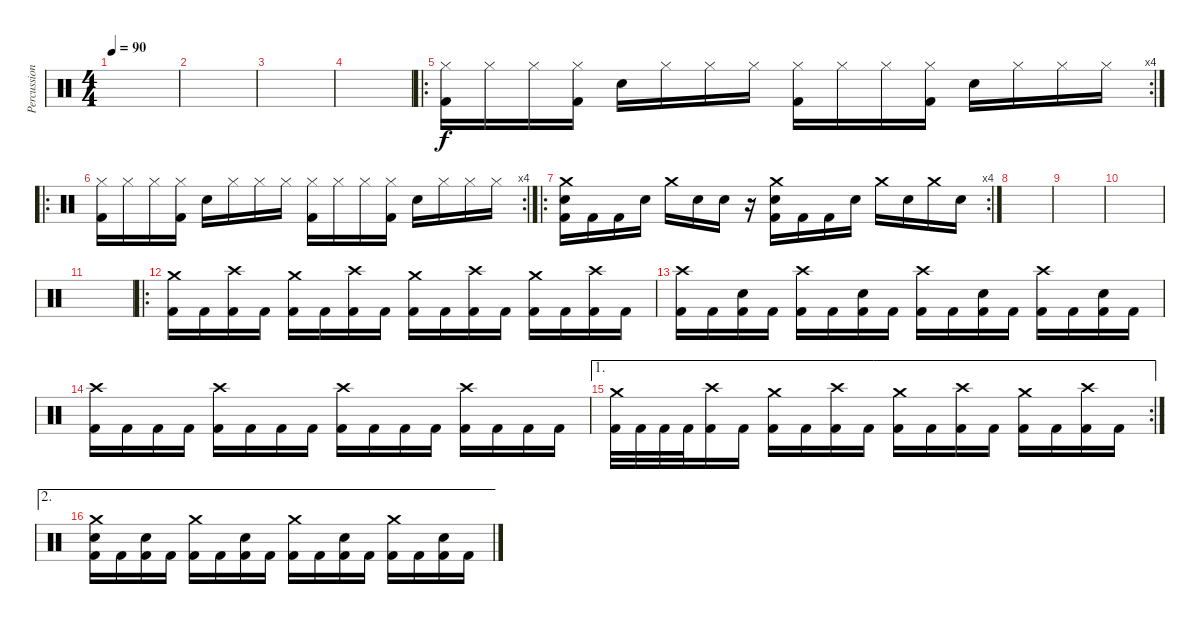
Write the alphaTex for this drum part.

\track ("Percussion" "Percussion") {instrument percussion}
\staff {score}
\articulation defaults
\ts (4 4)
\tempo 90
\clef neutral
\ks c
|
|
|
|
\ro
\rc 4
("Hi-Hat (closed)" "Kick (hit) 2").16 "Hi-Hat (closed)".16 "Hi-Hat (closed)".16 ("Hi-Hat (closed)" "Kick (hit) 2").16 "Electric Snare (hit)".16 "Hi-Hat (closed)".16 "Hi-Hat (closed)".16 "Hi-Hat (closed)".16 ("Hi-Hat (closed)" "Kick (hit) 2").16 "Hi-Hat (closed)".16 "Hi-Hat (closed)".16 ("Hi-Hat (closed)" "Kick (hit) 2").16 "Electric Snare (hit)".16 "Hi-Hat (closed)".16 "Hi-Hat (closed)".16 "Hi-Hat (closed)".16 |
\ro
\rc 4
("Hi-Hat (closed)" "Kick (hit) 2").16 "Hi-Hat (closed)".16 "Hi-Hat (closed)".16 ("Hi-Hat (closed)" "Kick (hit) 2").16 "Electric Snare (hit)".16 "Hi-Hat (closed)".16 "Hi-Hat (closed)".16 "Hi-Hat (closed)".16 ("Hi-Hat (closed)" "Kick (hit) 2").16 "Hi-Hat (closed)".16 "Hi-Hat (closed)".16 ("Hi-Hat (closed)" "Kick (hit) 2").16 "Electric Snare (hit)".16 "Hi-Hat (closed)".16 "Hi-Hat (closed)".16 "Hi-Hat (closed)".16 |
\ro
\rc 4
("Electric Snare (hit)" "Crash medium (hit)" "Kick (hit) 2").16 "Kick (hit) 2".16 "Kick (hit) 2".16 "Electric Snare (hit)".16 "Crash medium (hit)".16 "Electric Snare (hit)".16 "Electric Snare (hit)".16 r.16 ("Electric Snare (hit)" "Crash medium (hit)" "Kick (hit) 2").16 "Kick (hit) 2".16 "Kick (hit) 2".16 "Electric Snare (hit)".16 "Crash medium (hit)".16 "Electric Snare (hit)".16 "Crash medium (hit)".16 "Electric Snare (hit)".16 |
|
|
|
|
\ro
("Crash medium (hit)" "Kick (hit) 2").16 "Kick (hit) 2".16 ("Crash high (hit)" "Kick (hit) 2").16 "Kick (hit) 2".16 ("Crash medium (hit)" "Kick (hit) 2").16 "Kick (hit) 2".16 ("Crash high (hit)" "Kick (hit) 2").16 "Kick (hit) 2".16 ("Crash medium (hit)" "Kick (hit) 2").16 "Kick (hit) 2".16 ("Crash high (hit)" "Kick (hit) 2").16 "Kick (hit) 2".16 ("Crash medium (hit)" "Kick (hit) 2").16 "Kick (hit) 2".16 ("Crash high (hit)" "Kick (hit) 2").16 "Kick (hit) 2".16 |
("Crash high (hit)" "Kick (hit) 2").16 "Kick (hit) 2".16 ("Electric Snare (hit)" "Kick (hit) 2").16 "Kick (hit) 2".16 ("Crash high (hit)" "Kick (hit) 2").16 "Kick (hit) 2".16 ("Electric Snare (hit)" "Kick (hit) 2").16 "Kick (hit) 2".16 ("Crash high (hit)" "Kick (hit) 2").16 "Kick (hit) 2".16 ("Electric Snare (hit)" "Kick (hit) 2").16 "Kick (hit) 2".16 ("Crash high (hit)" "Kick (hit) 2").16 "Kick (hit) 2".16 ("Electric Snare (hit)" "Kick (hit) 2").16 "Kick (hit) 2".16 |
("Crash high (hit)" "Kick (hit) 2").16 "Kick (hit) 2".16 "Kick (hit) 2".16 "Kick (hit) 2".16 ("Crash high (hit)" "Kick (hit) 2").16 "Kick (hit) 2".16 "Kick (hit) 2".16 "Kick (hit) 2".16 ("Crash high (hit)" "Kick (hit) 2").16 "Kick (hit) 2".16 "Kick (hit) 2".16 "Kick (hit) 2".16 ("Crash high (hit)" "Kick (hit) 2").16 "Kick (hit) 2".16 "Kick (hit) 2".16 "Kick (hit) 2".16 |
\ae 1
\rc 2
("Crash medium (hit)" "Kick (hit) 2").32 "Kick (hit) 2".32 "Kick (hit) 2".32 "Kick (hit) 2".32 ("Crash high (hit)" "Kick (hit) 2").16 "Kick (hit) 2".16 ("Crash medium (hit)" "Kick (hit) 2").16 "Kick (hit) 2".16 ("Crash high (hit)" "Kick (hit) 2").16 "Kick (hit) 2".16 ("Crash medium (hit)" "Kick (hit) 2").16 "Kick (hit) 2".16 ("Crash high (hit)" "Kick (hit) 2").16 "Kick (hit) 2".16 ("Crash medium (hit)" "Kick (hit) 2").16 "Kick (hit) 2".16 ("Crash high (hit)" "Kick (hit) 2").16 "Kick (hit) 2".16 |
\ae 2
("Crash medium (hit)" "Electric Snare (hit)" "Kick (hit) 2").16 "Kick (hit) 2".16 ("Electric Snare (hit)" "Kick (hit) 2").16 "Kick (hit) 2".16 ("Crash medium (hit)" "Kick (hit) 2").16 "Kick (hit) 2".16 ("Electric Snare (hit)" "Kick (hit) 2").16 "Kick (hit) 2".16 ("Crash medium (hit)" "Kick (hit) 2").16 "Kick (hit) 2".16 ("Electric Snare (hit)" "Kick (hit) 2").16 "Kick (hit) 2".16 ("Crash medium (hit)" "Kick (hit) 2").16 "Kick (hit) 2".16 ("Electric Snare (hit)" "Kick (hit) 2").16 "Kick (hit) 2".16
